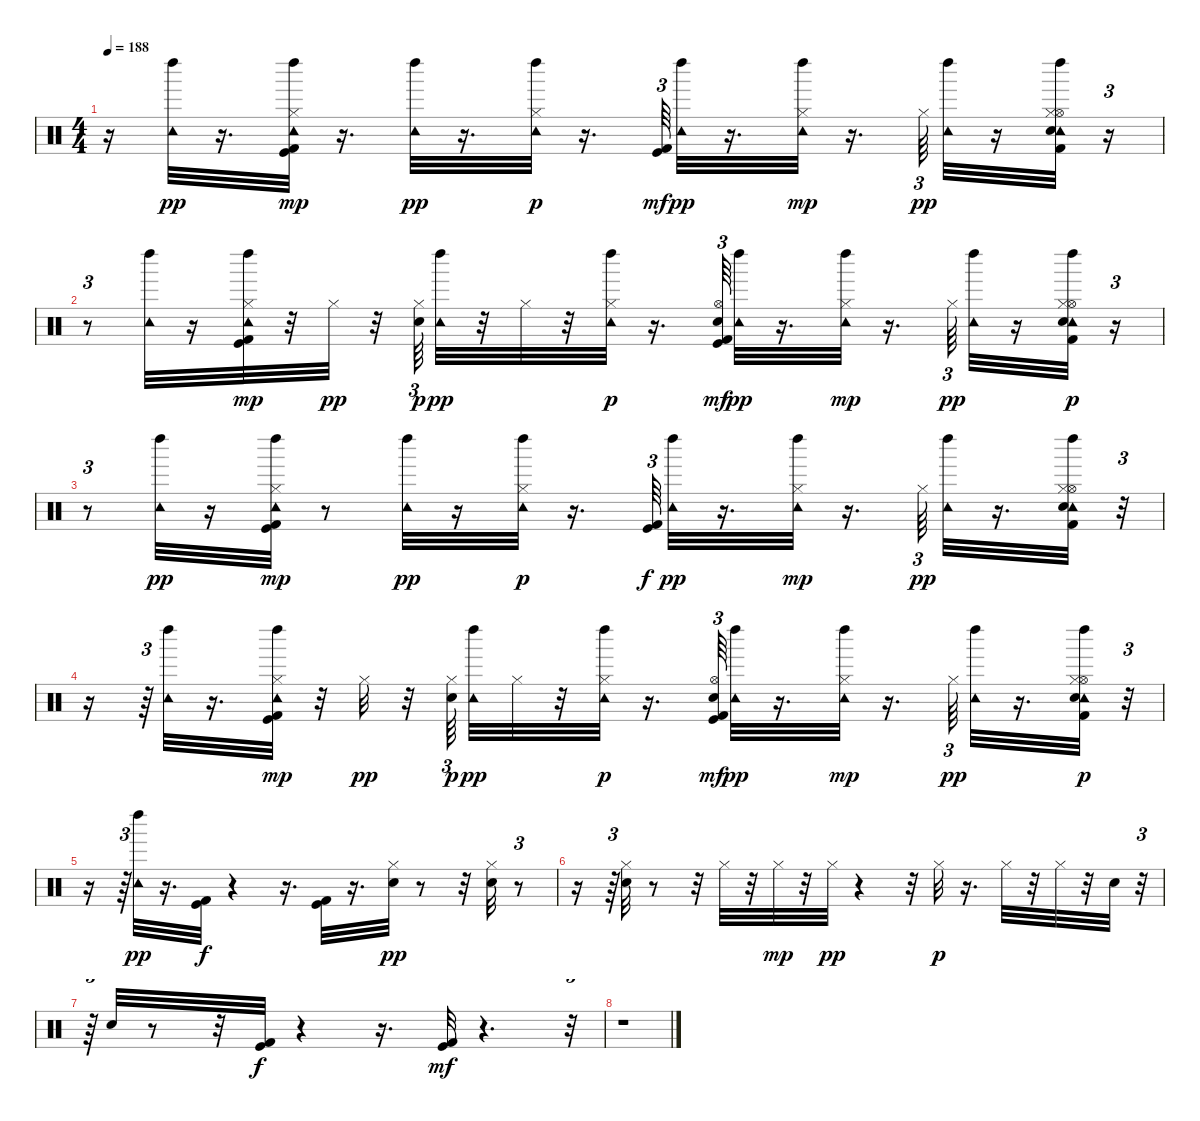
\track "" {instrument percussion}
\staff {score}
\articulation defaults
\ts (4 4)
\tempo 188
\clef neutral
\ks c
r.16{dy p} ("Tambourine (hit)" "Left Maraca (hit)").32{dy pp} r.16{d} ("Kick (hit) 2" "Hi-Hat (closed)" "Tambourine (hit)" "Left Maraca (hit)" "Kick (hit)").32{dy mp} r.16{d} ("Tambourine (hit)" "Left Maraca (hit)").32{dy pp} r.16{d} ("Hi-Hat (closed)" "Tambourine (hit)" "Left Maraca (hit)").32{dy p} r.16{d} ("Kick (hit) 2" "Kick (hit)").64{tu (3 2) dy mf} ("Tambourine (hit)" "Left Maraca (hit)").32{dy pp} r.16{d} ("Hi-Hat (closed)" "Tambourine (hit)" "Left Maraca (hit)").32{dy mp} r.16{d} "Hi-Hat (closed)".64{tu (3 2) dy pp} ("Tambourine (hit)" "Left Maraca (hit)").32 r.16 ("Kick (hit) 2" "Hi-Hat (open)" "Tambourine (hit)" "Left Maraca (hit)" "Electric Snare (hit)" "Hi-Hat (closed)").32 r.16{tu (3 2)} |
r.8{tu (3 2)} ("Tambourine (hit)" "Left Maraca (hit)").32 r.16 ("Kick (hit) 2" "Hi-Hat (closed)" "Tambourine (hit)" "Left Maraca (hit)" "Kick (hit)").32{dy mp} r.32 "Hi-Hat (closed)".32{dy pp} r.32 ("Electric Snare (hit)" "Hi-Hat (closed)").64{tu (3 2) dy p} ("Tambourine (hit)" "Left Maraca (hit)").32{dy pp} r.32 "Hi-Hat (closed)".32 r.32 ("Hi-Hat (closed)" "Tambourine (hit)" "Left Maraca (hit)").32{dy p} r.16{d} ("Kick (hit) 2" "Hi-Hat (open)" "Electric Snare (hit)" "Kick (hit)").64{tu (3 2) dy mf} ("Tambourine (hit)" "Left Maraca (hit)").32{dy pp} r.16{d} ("Hi-Hat (closed)" "Tambourine (hit)" "Left Maraca (hit)").32{dy mp} r.16{d} "Hi-Hat (closed)".64{tu (3 2) dy pp} ("Tambourine (hit)" "Left Maraca (hit)").32 r.16 ("Kick (hit) 2" "Hi-Hat (open)" "Tambourine (hit)" "Left Maraca (hit)" "Electric Snare (hit)" "Hi-Hat (closed)").32{dy p} r.16{tu (3 2)} |
r.8{tu (3 2)} ("Tambourine (hit)" "Left Maraca (hit)").32{dy pp} r.16 ("Kick (hit) 2" "Hi-Hat (closed)" "Tambourine (hit)" "Left Maraca (hit)" "Kick (hit)").32{dy mp} r.8 ("Tambourine (hit)" "Left Maraca (hit)").32{dy pp} r.16 ("Hi-Hat (closed)" "Tambourine (hit)" "Left Maraca (hit)").32{dy p} r.16{d} ("Kick (hit) 2" "Kick (hit)").64{tu (3 2) dy f} ("Tambourine (hit)" "Left Maraca (hit)").32{dy pp} r.16{d} ("Hi-Hat (closed)" "Tambourine (hit)" "Left Maraca (hit)").32{dy mp} r.16{d} "Hi-Hat (closed)".64{tu (3 2) dy pp} ("Tambourine (hit)" "Left Maraca (hit)").32 r.16{d} ("Kick (hit) 2" "Hi-Hat (open)" "Tambourine (hit)" "Left Maraca (hit)" "Electric Snare (hit)" "Hi-Hat (closed)").32 r.32{tu (3 2)} |
r.16 r.64{tu (3 2)} ("Tambourine (hit)" "Left Maraca (hit)").32 r.16{d} ("Kick (hit) 2" "Hi-Hat (closed)" "Tambourine (hit)" "Left Maraca (hit)" "Kick (hit)").32{dy mp} r.32 "Hi-Hat (closed)".32{dy pp} r.32 ("Electric Snare (hit)" "Hi-Hat (closed)").64{tu (3 2) dy p beam splitsecondary} ("Tambourine (hit)" "Left Maraca (hit)").32{dy pp} "Hi-Hat (closed)".32 r.32 ("Hi-Hat (closed)" "Tambourine (hit)" "Left Maraca (hit)").32{dy p} r.16{d} ("Kick (hit) 2" "Hi-Hat (open)" "Electric Snare (hit)" "Kick (hit)").64{tu (3 2) dy mf} ("Tambourine (hit)" "Left Maraca (hit)").32{dy pp} r.16{d} ("Hi-Hat (closed)" "Tambourine (hit)" "Left Maraca (hit)").32{dy mp} r.16{d} "Hi-Hat (closed)".64{tu (3 2) dy pp} ("Tambourine (hit)" "Left Maraca (hit)").32 r.16{d} ("Kick (hit) 2" "Hi-Hat (open)" "Tambourine (hit)" "Left Maraca (hit)" "Electric Snare (hit)" "Hi-Hat (closed)").32{dy p} r.32{tu (3 2)} |
r.16 r.64{tu (3 2)} ("Tambourine (hit)" "Left Maraca (hit)").32{dy pp} r.16{d} ("Kick (hit) 2" "Kick (hit)").32{dy f} r.4 r.16{d} ("Kick (hit) 2" "Kick (hit)").32 r.16{d} ("Hi-Hat (closed)" "Snare (hit) 2").32{dy pp} r.8 r.32 ("Hi-Hat (closed)" "Snare (hit) 2").32 r.8{tu (3 2)} |
r.16 r.64{tu (3 2)} ("Hi-Hat (closed)" "Snare (hit) 2").32 r.8 r.32 "Hi-Hat (closed)".32 r.32 "Hi-Hat (closed)".32{dy mp} r.32 "Hi-Hat (closed)".32{dy pp} r.4 r.32 "Hi-Hat (closed)".32{dy p} r.16{d} "Hi-Hat (closed)".32 r.32 "Hi-Hat (closed)".32 r.32 "Snare (hit) 2".32 r.32{tu (3 2)} |
r.64{tu (3 2)} "Snare (hit) 2".32 r.8 r.32 ("Kick (hit) 2" "Kick (hit)").32{dy f} r.4 r.16{d} ("Kick (hit) 2" "Kick (hit)").32{dy mf} r.4{d} r.32{tu (3 2)} |
r.1
